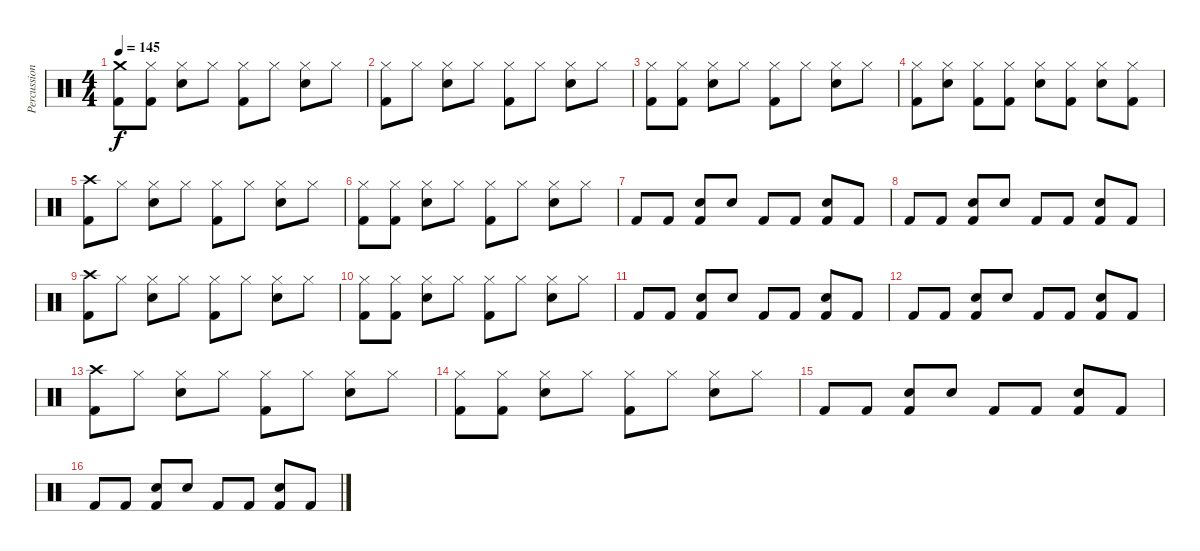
\track ("Percussion" "Percussion") {instrument percussion}
\staff {score}
\articulation defaults
\ts (4 4)
\tempo 145
\clef neutral
\ks c
("Kick (hit) 2" "Crash medium (hit)").8{dy f} ("Kick (hit) 2" "Hi-Hat (closed)").8 ("Snare (hit) 2" "Hi-Hat (closed)").8 "Hi-Hat (closed)".8 ("Kick (hit) 2" "Hi-Hat (closed)").8 "Hi-Hat (closed)".8 ("Snare (hit) 2" "Hi-Hat (closed)").8 "Hi-Hat (closed)".8 |
("Kick (hit) 2" "Hi-Hat (closed)").8 "Hi-Hat (closed)".8 ("Snare (hit) 2" "Hi-Hat (closed)").8 "Hi-Hat (closed)".8 ("Kick (hit) 2" "Hi-Hat (closed)").8 "Hi-Hat (closed)".8 ("Snare (hit) 2" "Hi-Hat (closed)").8 "Hi-Hat (closed)".8 |
("Kick (hit) 2" "Hi-Hat (closed)").8 ("Kick (hit) 2" "Hi-Hat (closed)").8 ("Snare (hit) 2" "Hi-Hat (closed)").8 "Hi-Hat (closed)".8 ("Kick (hit) 2" "Hi-Hat (closed)").8 "Hi-Hat (closed)".8 ("Snare (hit) 2" "Hi-Hat (closed)").8 "Hi-Hat (closed)".8 |
("Kick (hit) 2" "Hi-Hat (closed)").8 ("Snare (hit) 2" "Hi-Hat (closed)").8 ("Kick (hit) 2" "Hi-Hat (closed)").8 ("Kick (hit) 2" "Hi-Hat (closed)").8 ("Snare (hit) 2" "Hi-Hat (closed)").8 ("Kick (hit) 2" "Hi-Hat (closed)").8 ("Snare (hit) 2" "Hi-Hat (closed)").8 ("Kick (hit) 2" "Hi-Hat (closed)").8 |
("Kick (hit) 2" "Crash high (hit)").8 "Hi-Hat (closed)".8 ("Snare (hit) 2" "Hi-Hat (closed)").8 "Hi-Hat (closed)".8 ("Kick (hit) 2" "Hi-Hat (closed)").8 "Hi-Hat (closed)".8 ("Snare (hit) 2" "Hi-Hat (closed)").8 "Hi-Hat (closed)".8 |
("Kick (hit) 2" "Hi-Hat (closed)").8 ("Kick (hit) 2" "Hi-Hat (closed)").8 ("Snare (hit) 2" "Hi-Hat (closed)").8 "Hi-Hat (closed)".8 ("Kick (hit) 2" "Hi-Hat (closed)").8 "Hi-Hat (closed)".8 ("Snare (hit) 2" "Hi-Hat (closed)").8 "Hi-Hat (closed)".8 |
"Kick (hit) 2".8 "Kick (hit) 2".8 ("Kick (hit) 2" "Snare (hit) 2").8 "Snare (hit) 2".8 "Kick (hit) 2".8 "Kick (hit) 2".8 ("Kick (hit) 2" "Snare (hit) 2").8 "Kick (hit) 2".8 |
"Kick (hit) 2".8 "Kick (hit) 2".8 ("Kick (hit) 2" "Snare (hit) 2").8 "Snare (hit) 2".8 "Kick (hit) 2".8 "Kick (hit) 2".8 ("Kick (hit) 2" "Snare (hit) 2").8 "Kick (hit) 2".8 |
("Kick (hit) 2" "Crash high (hit)").8 "Hi-Hat (closed)".8 ("Snare (hit) 2" "Hi-Hat (closed)").8 "Hi-Hat (closed)".8 ("Kick (hit) 2" "Hi-Hat (closed)").8 "Hi-Hat (closed)".8 ("Snare (hit) 2" "Hi-Hat (closed)").8 "Hi-Hat (closed)".8 |
("Kick (hit) 2" "Hi-Hat (closed)").8 ("Kick (hit) 2" "Hi-Hat (closed)").8 ("Snare (hit) 2" "Hi-Hat (closed)").8 "Hi-Hat (closed)".8 ("Kick (hit) 2" "Hi-Hat (closed)").8 "Hi-Hat (closed)".8 ("Snare (hit) 2" "Hi-Hat (closed)").8 "Hi-Hat (closed)".8 |
"Kick (hit) 2".8 "Kick (hit) 2".8 ("Kick (hit) 2" "Snare (hit) 2").8 "Snare (hit) 2".8 "Kick (hit) 2".8 "Kick (hit) 2".8 ("Kick (hit) 2" "Snare (hit) 2").8 "Kick (hit) 2".8 |
"Kick (hit) 2".8 "Kick (hit) 2".8 ("Kick (hit) 2" "Snare (hit) 2").8 "Snare (hit) 2".8 "Kick (hit) 2".8 "Kick (hit) 2".8 ("Kick (hit) 2" "Snare (hit) 2").8 "Kick (hit) 2".8 |
("Kick (hit) 2" "Crash high (hit)").8 "Hi-Hat (closed)".8 ("Snare (hit) 2" "Hi-Hat (closed)").8 "Hi-Hat (closed)".8 ("Kick (hit) 2" "Hi-Hat (closed)").8 "Hi-Hat (closed)".8 ("Snare (hit) 2" "Hi-Hat (closed)").8 "Hi-Hat (closed)".8 |
("Kick (hit) 2" "Hi-Hat (closed)").8 ("Kick (hit) 2" "Hi-Hat (closed)").8 ("Snare (hit) 2" "Hi-Hat (closed)").8 "Hi-Hat (closed)".8 ("Kick (hit) 2" "Hi-Hat (closed)").8 "Hi-Hat (closed)".8 ("Snare (hit) 2" "Hi-Hat (closed)").8 "Hi-Hat (closed)".8 |
"Kick (hit) 2".8 "Kick (hit) 2".8 ("Kick (hit) 2" "Snare (hit) 2").8 "Snare (hit) 2".8 "Kick (hit) 2".8 "Kick (hit) 2".8 ("Kick (hit) 2" "Snare (hit) 2").8 "Kick (hit) 2".8 |
"Kick (hit) 2".8 "Kick (hit) 2".8 ("Kick (hit) 2" "Snare (hit) 2").8 "Snare (hit) 2".8 "Kick (hit) 2".8 "Kick (hit) 2".8 ("Kick (hit) 2" "Snare (hit) 2").8 "Kick (hit) 2".8
